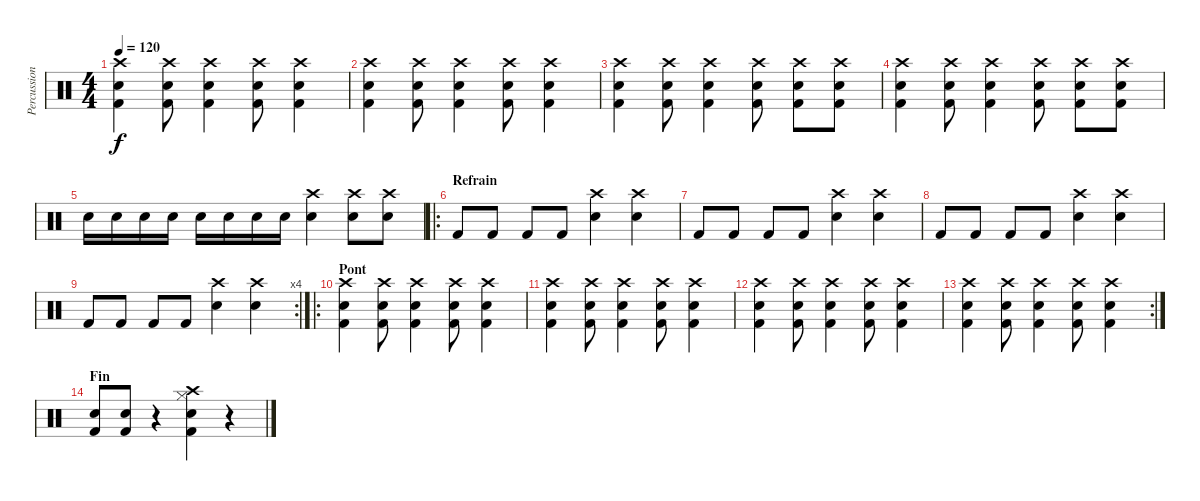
\track ("Percussions" "Percussion") {instrument percussion}
\staff {score}
\articulation defaults
\ts (4 4)
\tempo 120
\clef neutral
\ks c
("Crash high (hit)" "Snare (hit) 2" "Kick (hit) 2").4{dy f} ("Crash high (hit)" "Snare (hit) 2" "Kick (hit) 2").8 ("Crash high (hit)" "Snare (hit) 2" "Kick (hit) 2").4 ("Crash high (hit)" "Snare (hit) 2" "Kick (hit) 2").8 ("Crash high (hit)" "Snare (hit) 2" "Kick (hit) 2").4 |
("Crash high (hit)" "Snare (hit) 2" "Kick (hit) 2").4 ("Crash high (hit)" "Snare (hit) 2" "Kick (hit) 2").8 ("Crash high (hit)" "Snare (hit) 2" "Kick (hit) 2").4 ("Crash high (hit)" "Snare (hit) 2" "Kick (hit) 2").8 ("Crash high (hit)" "Snare (hit) 2" "Kick (hit) 2").4 |
("Crash high (hit)" "Snare (hit) 2" "Kick (hit) 2").4 ("Crash high (hit)" "Snare (hit) 2" "Kick (hit) 2").8 ("Crash high (hit)" "Snare (hit) 2" "Kick (hit) 2").4 ("Crash high (hit)" "Snare (hit) 2" "Kick (hit) 2").8 ("Crash high (hit)" "Snare (hit) 2" "Kick (hit) 2").8 ("Crash high (hit)" "Snare (hit) 2" "Kick (hit) 2").8 |
("Crash high (hit)" "Snare (hit) 2" "Kick (hit) 2").4 ("Crash high (hit)" "Snare (hit) 2" "Kick (hit) 2").8 ("Crash high (hit)" "Snare (hit) 2" "Kick (hit) 2").4 ("Crash high (hit)" "Snare (hit) 2" "Kick (hit) 2").8 ("Crash high (hit)" "Snare (hit) 2" "Kick (hit) 2").8 ("Crash high (hit)" "Snare (hit) 2" "Kick (hit) 2").8 |
"Snare (hit) 2".16 "Snare (hit) 2".16 "Snare (hit) 2".16 "Snare (hit) 2".16 "Snare (hit) 2".16 "Snare (hit) 2".16 "Snare (hit) 2".16 "Snare (hit) 2".16 ("Crash high (hit)" "Snare (hit) 2").4 ("Crash high (hit)" "Snare (hit) 2").8 ("Crash high (hit)" "Snare (hit) 2").8 |
\ro
\section ("" "Refrain")
"Kick (hit) 2".8 "Kick (hit) 2".8 "Kick (hit) 2".8 "Kick (hit) 2".8 ("Crash high (hit)" "Snare (hit) 2").4 ("Crash high (hit)" "Snare (hit) 2").4 |
"Kick (hit) 2".8 "Kick (hit) 2".8 "Kick (hit) 2".8 "Kick (hit) 2".8 ("Crash high (hit)" "Snare (hit) 2").4 ("Crash high (hit)" "Snare (hit) 2").4 |
"Kick (hit) 2".8 "Kick (hit) 2".8 "Kick (hit) 2".8 "Kick (hit) 2".8 ("Crash high (hit)" "Snare (hit) 2").4 ("Crash high (hit)" "Snare (hit) 2").4 |
\rc 4 "Kick (hit) 2".8 "Kick (hit) 2".8 "Kick (hit) 2".8 "Kick (hit) 2".8
("Crash high (hit)" "Snare (hit) 2").4 ("Crash high (hit)" "Snare (hit) 2").4 |
\ro
\section ("" "Pont")
("Crash high (hit)" "Snare (hit) 2" "Kick (hit) 2").4 ("Crash high (hit)" "Snare (hit) 2" "Kick (hit) 2").8 ("Crash high (hit)" "Snare (hit) 2" "Kick (hit) 2").4 ("Crash high (hit)" "Snare (hit) 2" "Kick (hit) 2").8 ("Crash high (hit)" "Snare (hit) 2" "Kick (hit) 2").4 |
("Crash high (hit)" "Snare (hit) 2" "Kick (hit) 2").4 ("Crash high (hit)" "Snare (hit) 2" "Kick (hit) 2").8 ("Crash high (hit)" "Snare (hit) 2" "Kick (hit) 2").4 ("Crash high (hit)" "Snare (hit) 2" "Kick (hit) 2").8 ("Crash high (hit)" "Snare (hit) 2" "Kick (hit) 2").4 |
("Crash high (hit)" "Snare (hit) 2" "Kick (hit) 2").4 ("Crash high (hit)" "Snare (hit) 2" "Kick (hit) 2").8 ("Crash high (hit)" "Snare (hit) 2" "Kick (hit) 2").4 ("Crash high (hit)" "Snare (hit) 2" "Kick (hit) 2").8 ("Crash high (hit)" "Snare (hit) 2" "Kick (hit) 2").4 |
\rc 2
("Crash high (hit)" "Snare (hit) 2" "Kick (hit) 2").4 ("Crash high (hit)" "Snare (hit) 2" "Kick (hit) 2").8 ("Crash high (hit)" "Snare (hit) 2" "Kick (hit) 2").4 ("Crash high (hit)" "Snare (hit) 2" "Kick (hit) 2").8 ("Crash high (hit)" "Snare (hit) 2" "Kick (hit) 2").4 |
\section ("" "Fin")
("Kick (hit) 2" "Snare (hit) 2").8 ("Kick (hit) 2" "Snare (hit) 2").8 r.4 ("Hi-Hat (closed)" "Crash high (hit)" "Snare (hit) 2" "Kick (hit) 2").4 r.4
